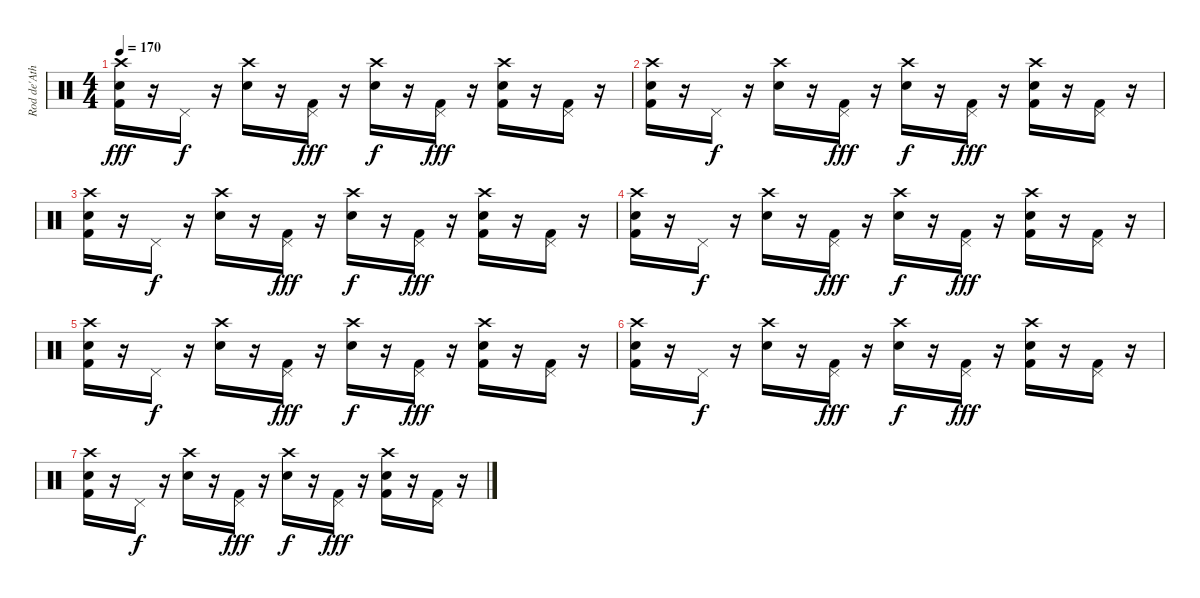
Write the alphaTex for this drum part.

\track ("Rod de'Ath" "Rod de'Ath") {instrument percussion}
\staff {score}
\articulation defaults
\ts (4 4)
\tempo 170
\clef neutral
\ks c
("Crash high (hit)" "Electric Snare (hit)" "Kick (hit) 2").16{dy fff} r.16 "Pedal Hi-Hat (hit)".16{dy f} r.16 ("Crash high (hit)" "Electric Snare (hit)").16 r.16 ("Pedal Hi-Hat (hit)" "Kick (hit) 2").16{dy fff} r.16 ("Crash high (hit)" "Electric Snare (hit)").16{dy f} r.16 ("Pedal Hi-Hat (hit)" "Kick (hit) 2").16{dy fff} r.16 ("Crash high (hit)" "Electric Snare (hit)" "Kick (hit) 2").16 r.16 ("Pedal Hi-Hat (hit)" "Kick (hit) 2").16 r.16 |
("Crash high (hit)" "Electric Snare (hit)" "Kick (hit) 2").16 r.16 "Pedal Hi-Hat (hit)".16{dy f} r.16 ("Crash high (hit)" "Electric Snare (hit)").16 r.16 ("Pedal Hi-Hat (hit)" "Kick (hit) 2").16{dy fff} r.16 ("Crash high (hit)" "Electric Snare (hit)").16{dy f} r.16 ("Pedal Hi-Hat (hit)" "Kick (hit) 2").16{dy fff} r.16 ("Crash high (hit)" "Electric Snare (hit)" "Kick (hit) 2").16 r.16 ("Pedal Hi-Hat (hit)" "Kick (hit) 2").16 r.16 |
("Crash high (hit)" "Electric Snare (hit)" "Kick (hit) 2").16 r.16 "Pedal Hi-Hat (hit)".16{dy f} r.16 ("Crash high (hit)" "Electric Snare (hit)").16 r.16 ("Pedal Hi-Hat (hit)" "Kick (hit) 2").16{dy fff} r.16 ("Crash high (hit)" "Electric Snare (hit)").16{dy f} r.16 ("Pedal Hi-Hat (hit)" "Kick (hit) 2").16{dy fff} r.16 ("Crash high (hit)" "Electric Snare (hit)" "Kick (hit) 2").16 r.16 ("Pedal Hi-Hat (hit)" "Kick (hit) 2").16 r.16 |
("Crash high (hit)" "Electric Snare (hit)" "Kick (hit) 2").16 r.16 "Pedal Hi-Hat (hit)".16{dy f} r.16 ("Crash high (hit)" "Electric Snare (hit)").16 r.16 ("Pedal Hi-Hat (hit)" "Kick (hit) 2").16{dy fff} r.16 ("Crash high (hit)" "Electric Snare (hit)").16{dy f} r.16 ("Pedal Hi-Hat (hit)" "Kick (hit) 2").16{dy fff} r.16 ("Crash high (hit)" "Electric Snare (hit)" "Kick (hit) 2").16 r.16 ("Pedal Hi-Hat (hit)" "Kick (hit) 2").16 r.16 |
("Crash high (hit)" "Electric Snare (hit)" "Kick (hit) 2").16 r.16 "Pedal Hi-Hat (hit)".16{dy f} r.16 ("Crash high (hit)" "Electric Snare (hit)").16 r.16 ("Pedal Hi-Hat (hit)" "Kick (hit) 2").16{dy fff} r.16 ("Crash high (hit)" "Electric Snare (hit)").16{dy f} r.16 ("Pedal Hi-Hat (hit)" "Kick (hit) 2").16{dy fff} r.16 ("Crash high (hit)" "Electric Snare (hit)" "Kick (hit) 2").16 r.16 ("Pedal Hi-Hat (hit)" "Kick (hit) 2").16 r.16 |
("Crash high (hit)" "Electric Snare (hit)" "Kick (hit) 2").16 r.16 "Pedal Hi-Hat (hit)".16{dy f} r.16 ("Crash high (hit)" "Electric Snare (hit)").16 r.16 ("Pedal Hi-Hat (hit)" "Kick (hit) 2").16{dy fff} r.16 ("Crash high (hit)" "Electric Snare (hit)").16{dy f} r.16 ("Pedal Hi-Hat (hit)" "Kick (hit) 2").16{dy fff} r.16 ("Crash high (hit)" "Electric Snare (hit)" "Kick (hit) 2").16 r.16 ("Pedal Hi-Hat (hit)" "Kick (hit) 2").16 r.16 |
("Crash high (hit)" "Electric Snare (hit)" "Kick (hit) 2").16 r.16 "Pedal Hi-Hat (hit)".16{dy f} r.16 ("Crash high (hit)" "Electric Snare (hit)").16 r.16 ("Pedal Hi-Hat (hit)" "Kick (hit) 2").16{dy fff} r.16 ("Crash high (hit)" "Electric Snare (hit)").16{dy f} r.16 ("Pedal Hi-Hat (hit)" "Kick (hit) 2").16{dy fff} r.16 ("Crash high (hit)" "Electric Snare (hit)" "Kick (hit) 2").16 r.16 ("Pedal Hi-Hat (hit)" "Kick (hit) 2").16 r.16
